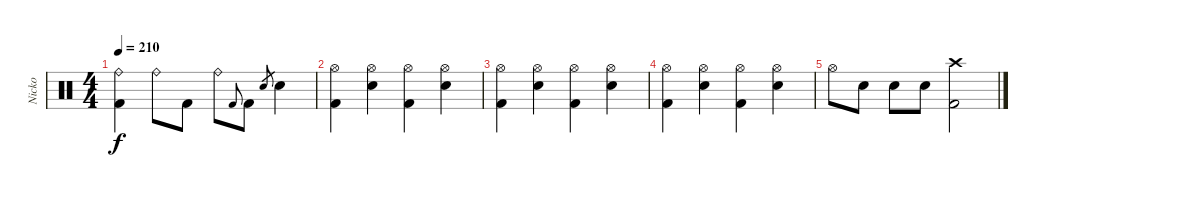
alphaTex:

\track ("Nicko" "Nicko") {instrument percussion}
\staff {score}
\articulation defaults
\ts (4 4)
\tempo 210
\clef neutral
\ks c
("Ride (bell)" "Kick (hit) 2").4{dy f} "Ride (bell)".8 "Kick (hit) 2".8 "Ride (bell)".8 "Kick (hit) 2"{h}.8{gr onbeat} "Kick (hit) 2".8 "Electric Snare (hit)".8{gr} "Electric Snare (hit)".4 |
("Hi-Hat (open)" "Kick (hit) 2").4 ("Hi-Hat (open)" "Electric Snare (hit)").4 ("Hi-Hat (open)" "Kick (hit) 2").4 ("Hi-Hat (open)" "Electric Snare (hit)").4 |
("Hi-Hat (open)" "Kick (hit) 2").4 ("Hi-Hat (open)" "Electric Snare (hit)").4 ("Hi-Hat (open)" "Kick (hit) 2").4 ("Hi-Hat (open)" "Electric Snare (hit)").4 |
("Hi-Hat (open)" "Kick (hit) 2").4 ("Hi-Hat (open)" "Electric Snare (hit)").4 ("Hi-Hat (open)" "Kick (hit) 2").4 ("Hi-Hat (open)" "Electric Snare (hit)").4 |
"Hi-Hat (open)".8 "Electric Snare (hit)".8 "Electric Snare (hit)".8 "Electric Snare (hit)".8 ("Crash high (hit)" "Kick (hit) 2").2
